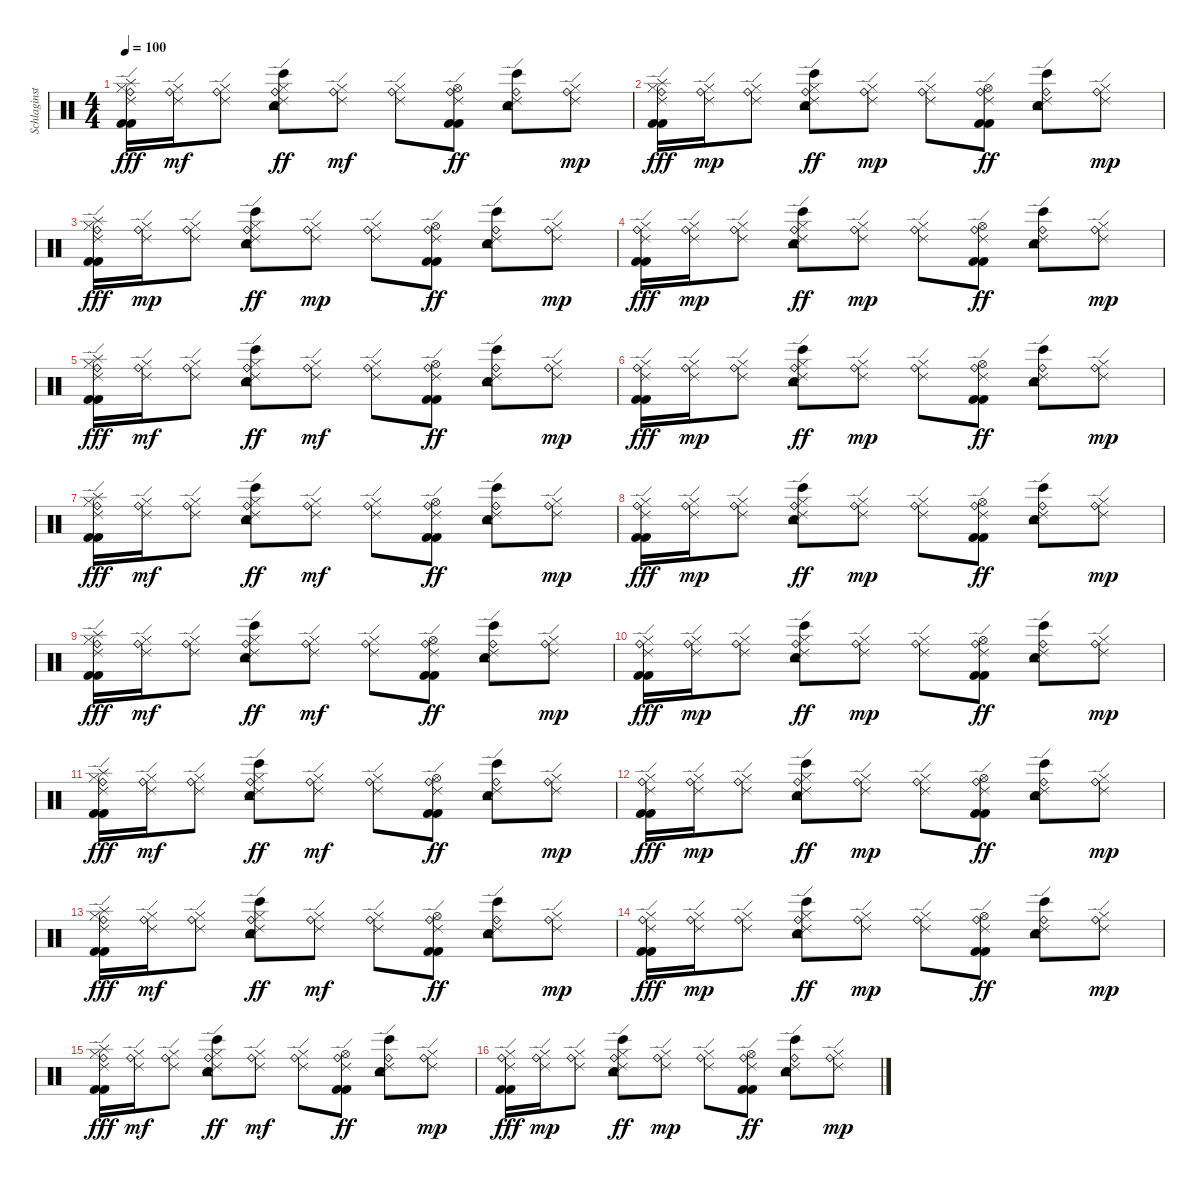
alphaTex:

\track ("Schlaginstrumente - Auswahl" "Schlaginst") {instrument percussion}
\staff {score}
\articulation defaults
\ts (4 4)
\tempo 100
\clef neutral
\ks c
("Splash (hit)" "Ride (bell)" "Ride (edge) 2" "Hi-Hat (closed)" "Kick (hit) 2" "Kick (hit) 2").16{dy fff} ("Ride (bell)" "Ride (edge) 2" "Hi-Hat (closed)").16{dy mf} ("Ride (bell)" "Ride (edge) 2" "Hi-Hat (closed)").8 ("Snare (hit) 2" "Ride (bell)" "Ride (edge) 2" "Hi-Hat (closed)" "Bongo High (hit)" "Tambourine (hit)").8{dy ff} ("Ride (bell)" "Ride (edge) 2" "Hi-Hat (closed)").8{dy mf} ("Ride (bell)" "Ride (edge) 2" "Hi-Hat (closed)").8 ("Ride (bell)" "Ride (edge) 2" "Hi-Hat (open)" "Kick (hit) 2" "Kick (hit) 2").8{dy ff} ("Snare (hit) 2" "Ride (bell)" "Ride (edge) 2" "Bongo High (hit)" "Tambourine (hit)").8 ("Ride (bell)" "Ride (edge) 2" "Hi-Hat (closed)").8{dy mp} |
("Splash (hit)" "Ride (bell)" "Ride (edge) 2" "Hi-Hat (closed)" "Kick (hit) 2" "Kick (hit) 2").16{dy fff} ("Ride (bell)" "Ride (edge) 2" "Hi-Hat (closed)").16{dy mp} ("Ride (bell)" "Ride (edge) 2" "Hi-Hat (closed)").8 ("Snare (hit) 2" "Ride (bell)" "Ride (edge) 2" "Hi-Hat (closed)" "Bongo High (hit)" "Tambourine (hit)").8{dy ff} ("Ride (bell)" "Ride (edge) 2" "Hi-Hat (closed)").8{dy mp} ("Ride (bell)" "Ride (edge) 2" "Hi-Hat (closed)").8 ("Ride (bell)" "Ride (edge) 2" "Hi-Hat (open)" "Kick (hit) 2" "Kick (hit) 2").8{dy ff} ("Snare (hit) 2" "Ride (bell)" "Ride (edge) 2" "Bongo High (hit)" "Tambourine (hit)").8 ("Ride (bell)" "Ride (edge) 2" "Hi-Hat (closed)").8{dy mp} |
("Splash (hit)" "Ride (bell)" "Ride (edge) 2" "Hi-Hat (closed)" "Kick (hit) 2" "Kick (hit) 2").16{dy fff} ("Ride (bell)" "Ride (edge) 2" "Hi-Hat (closed)").16{dy mp} ("Ride (bell)" "Ride (edge) 2" "Hi-Hat (closed)").8 ("Snare (hit) 2" "Ride (bell)" "Ride (edge) 2" "Hi-Hat (closed)" "Bongo High (hit)" "Tambourine (hit)").8{dy ff} ("Ride (bell)" "Ride (edge) 2" "Hi-Hat (closed)").8{dy mp} ("Ride (bell)" "Ride (edge) 2" "Hi-Hat (closed)").8 ("Ride (bell)" "Ride (edge) 2" "Hi-Hat (open)" "Kick (hit) 2" "Kick (hit) 2").8{dy ff} ("Snare (hit) 2" "Ride (bell)" "Ride (edge) 2" "Bongo High (hit)" "Tambourine (hit)").8 ("Ride (bell)" "Ride (edge) 2" "Hi-Hat (closed)").8{dy mp} |
("Ride (bell)" "Ride (edge) 2" "Hi-Hat (closed)" "Kick (hit) 2" "Kick (hit) 2").16{dy fff} ("Ride (bell)" "Ride (edge) 2" "Hi-Hat (closed)").16{dy mp} ("Ride (bell)" "Ride (edge) 2" "Hi-Hat (closed)").8 ("Snare (hit) 2" "Ride (bell)" "Ride (edge) 2" "Hi-Hat (closed)" "Bongo High (hit)" "Tambourine (hit)").8{dy ff} ("Ride (bell)" "Ride (edge) 2" "Hi-Hat (closed)").8{dy mp} ("Ride (bell)" "Ride (edge) 2" "Hi-Hat (closed)").8 ("Ride (bell)" "Ride (edge) 2" "Hi-Hat (open)" "Kick (hit) 2" "Kick (hit) 2").8{dy ff} ("Snare (hit) 2" "Ride (bell)" "Ride (edge) 2" "Bongo High (hit)" "Tambourine (hit)").8 ("Ride (bell)" "Ride (edge) 2" "Hi-Hat (closed)").8{dy mp} |
("Splash (hit)" "Ride (bell)" "Ride (edge) 2" "Hi-Hat (closed)" "Kick (hit) 2" "Kick (hit) 2").16{dy fff volume 12} ("Ride (bell)" "Ride (edge) 2" "Hi-Hat (closed)").16{dy mf} ("Ride (bell)" "Ride (edge) 2" "Hi-Hat (closed)").8 ("Snare (hit) 2" "Ride (bell)" "Ride (edge) 2" "Hi-Hat (closed)" "Bongo High (hit)" "Tambourine (hit)").8{dy ff} ("Ride (bell)" "Ride (edge) 2" "Hi-Hat (closed)").8{dy mf} ("Ride (bell)" "Ride (edge) 2" "Hi-Hat (closed)").8 ("Ride (bell)" "Ride (edge) 2" "Hi-Hat (open)" "Kick (hit) 2" "Kick (hit) 2").8{dy ff} ("Snare (hit) 2" "Ride (bell)" "Ride (edge) 2" "Bongo High (hit)" "Tambourine (hit)").8 ("Ride (bell)" "Ride (edge) 2" "Hi-Hat (closed)").8{dy mp} |
("Ride (bell)" "Ride (edge) 2" "Hi-Hat (closed)" "Kick (hit) 2" "Kick (hit) 2").16{dy fff} ("Ride (bell)" "Ride (edge) 2" "Hi-Hat (closed)").16{dy mp} ("Ride (bell)" "Ride (edge) 2" "Hi-Hat (closed)").8 ("Snare (hit) 2" "Ride (bell)" "Ride (edge) 2" "Hi-Hat (closed)" "Bongo High (hit)" "Tambourine (hit)").8{dy ff} ("Ride (bell)" "Ride (edge) 2" "Hi-Hat (closed)").8{dy mp} ("Ride (bell)" "Ride (edge) 2" "Hi-Hat (closed)").8 ("Ride (bell)" "Ride (edge) 2" "Hi-Hat (open)" "Kick (hit) 2" "Kick (hit) 2").8{dy ff} ("Snare (hit) 2" "Ride (bell)" "Ride (edge) 2" "Bongo High (hit)" "Tambourine (hit)").8 ("Ride (bell)" "Ride (edge) 2" "Hi-Hat (closed)").8{dy mp} |
("Splash (hit)" "Ride (bell)" "Ride (edge) 2" "Hi-Hat (closed)" "Kick (hit) 2" "Kick (hit) 2").16{dy fff} ("Ride (bell)" "Ride (edge) 2" "Hi-Hat (closed)").16{dy mf} ("Ride (bell)" "Ride (edge) 2" "Hi-Hat (closed)").8 ("Snare (hit) 2" "Ride (bell)" "Ride (edge) 2" "Hi-Hat (closed)" "Bongo High (hit)" "Tambourine (hit)").8{dy ff} ("Ride (bell)" "Ride (edge) 2" "Hi-Hat (closed)").8{dy mf} ("Ride (bell)" "Ride (edge) 2" "Hi-Hat (closed)").8 ("Ride (bell)" "Ride (edge) 2" "Hi-Hat (open)" "Kick (hit) 2" "Kick (hit) 2").8{dy ff} ("Snare (hit) 2" "Ride (bell)" "Ride (edge) 2" "Bongo High (hit)" "Tambourine (hit)").8 ("Ride (bell)" "Ride (edge) 2" "Hi-Hat (closed)").8{dy mp} |
("Ride (bell)" "Ride (edge) 2" "Hi-Hat (closed)" "Kick (hit) 2" "Kick (hit) 2").16{dy fff} ("Ride (bell)" "Ride (edge) 2" "Hi-Hat (closed)").16{dy mp} ("Ride (bell)" "Ride (edge) 2" "Hi-Hat (closed)").8 ("Snare (hit) 2" "Ride (bell)" "Ride (edge) 2" "Hi-Hat (closed)" "Bongo High (hit)" "Tambourine (hit)").8{dy ff} ("Ride (bell)" "Ride (edge) 2" "Hi-Hat (closed)").8{dy mp} ("Ride (bell)" "Ride (edge) 2" "Hi-Hat (closed)").8 ("Ride (bell)" "Ride (edge) 2" "Hi-Hat (open)" "Kick (hit) 2" "Kick (hit) 2").8{dy ff} ("Snare (hit) 2" "Ride (bell)" "Ride (edge) 2" "Bongo High (hit)" "Tambourine (hit)").8 ("Ride (bell)" "Ride (edge) 2" "Hi-Hat (closed)").8{dy mp} |
("Splash (hit)" "Ride (bell)" "Ride (edge) 2" "Hi-Hat (closed)" "Kick (hit) 2" "Kick (hit) 2").16{dy fff} ("Ride (bell)" "Ride (edge) 2" "Hi-Hat (closed)").16{dy mf} ("Ride (bell)" "Ride (edge) 2" "Hi-Hat (closed)").8 ("Snare (hit) 2" "Ride (bell)" "Ride (edge) 2" "Hi-Hat (closed)" "Bongo High (hit)" "Tambourine (hit)").8{dy ff} ("Ride (bell)" "Ride (edge) 2" "Hi-Hat (closed)").8{dy mf} ("Ride (bell)" "Ride (edge) 2" "Hi-Hat (closed)").8 ("Ride (bell)" "Ride (edge) 2" "Hi-Hat (open)" "Kick (hit) 2" "Kick (hit) 2").8{dy ff} ("Snare (hit) 2" "Ride (bell)" "Ride (edge) 2" "Bongo High (hit)" "Tambourine (hit)").8 ("Ride (bell)" "Ride (edge) 2" "Hi-Hat (closed)").8{dy mp} |
("Ride (bell)" "Ride (edge) 2" "Hi-Hat (closed)" "Kick (hit) 2" "Kick (hit) 2").16{dy fff} ("Ride (bell)" "Ride (edge) 2" "Hi-Hat (closed)").16{dy mp} ("Ride (bell)" "Ride (edge) 2" "Hi-Hat (closed)").8 ("Snare (hit) 2" "Ride (bell)" "Ride (edge) 2" "Hi-Hat (closed)" "Bongo High (hit)" "Tambourine (hit)").8{dy ff} ("Ride (bell)" "Ride (edge) 2" "Hi-Hat (closed)").8{dy mp} ("Ride (bell)" "Ride (edge) 2" "Hi-Hat (closed)").8 ("Ride (bell)" "Ride (edge) 2" "Hi-Hat (open)" "Kick (hit) 2" "Kick (hit) 2").8{dy ff} ("Snare (hit) 2" "Ride (bell)" "Ride (edge) 2" "Bongo High (hit)" "Tambourine (hit)").8 ("Ride (bell)" "Ride (edge) 2" "Hi-Hat (closed)").8{dy mp} |
("Splash (hit)" "Ride (bell)" "Ride (edge) 2" "Hi-Hat (closed)" "Kick (hit) 2" "Kick (hit) 2").16{dy fff} ("Ride (bell)" "Ride (edge) 2" "Hi-Hat (closed)").16{dy mf} ("Ride (bell)" "Ride (edge) 2" "Hi-Hat (closed)").8 ("Snare (hit) 2" "Ride (bell)" "Ride (edge) 2" "Hi-Hat (closed)" "Bongo High (hit)" "Tambourine (hit)").8{dy ff} ("Ride (bell)" "Ride (edge) 2" "Hi-Hat (closed)").8{dy mf} ("Ride (bell)" "Ride (edge) 2" "Hi-Hat (closed)").8 ("Ride (bell)" "Ride (edge) 2" "Hi-Hat (open)" "Kick (hit) 2" "Kick (hit) 2").8{dy ff} ("Snare (hit) 2" "Ride (bell)" "Ride (edge) 2" "Bongo High (hit)" "Tambourine (hit)").8 ("Ride (bell)" "Ride (edge) 2" "Hi-Hat (closed)").8{dy mp} |
("Ride (bell)" "Ride (edge) 2" "Hi-Hat (closed)" "Kick (hit) 2" "Kick (hit) 2").16{dy fff} ("Ride (bell)" "Ride (edge) 2" "Hi-Hat (closed)").16{dy mp} ("Ride (bell)" "Ride (edge) 2" "Hi-Hat (closed)").8 ("Snare (hit) 2" "Ride (bell)" "Ride (edge) 2" "Hi-Hat (closed)" "Bongo High (hit)" "Tambourine (hit)").8{dy ff} ("Ride (bell)" "Ride (edge) 2" "Hi-Hat (closed)").8{dy mp} ("Ride (bell)" "Ride (edge) 2" "Hi-Hat (closed)").8 ("Ride (bell)" "Ride (edge) 2" "Hi-Hat (open)" "Kick (hit) 2" "Kick (hit) 2").8{dy ff} ("Snare (hit) 2" "Ride (bell)" "Ride (edge) 2" "Bongo High (hit)" "Tambourine (hit)").8 ("Ride (bell)" "Ride (edge) 2" "Hi-Hat (closed)").8{dy mp} |
("Splash (hit)" "Ride (bell)" "Ride (edge) 2" "Hi-Hat (closed)" "Kick (hit) 2" "Kick (hit) 2").16{dy fff} ("Ride (bell)" "Ride (edge) 2" "Hi-Hat (closed)").16{dy mf} ("Ride (bell)" "Ride (edge) 2" "Hi-Hat (closed)").8 ("Snare (hit) 2" "Ride (bell)" "Ride (edge) 2" "Hi-Hat (closed)" "Bongo High (hit)" "Tambourine (hit)").8{dy ff} ("Ride (bell)" "Ride (edge) 2" "Hi-Hat (closed)").8{dy mf} ("Ride (bell)" "Ride (edge) 2" "Hi-Hat (closed)").8 ("Ride (bell)" "Ride (edge) 2" "Hi-Hat (open)" "Kick (hit) 2" "Kick (hit) 2").8{dy ff} ("Snare (hit) 2" "Ride (bell)" "Ride (edge) 2" "Bongo High (hit)" "Tambourine (hit)").8 ("Ride (bell)" "Ride (edge) 2" "Hi-Hat (closed)").8{dy mp} |
("Ride (bell)" "Ride (edge) 2" "Hi-Hat (closed)" "Kick (hit) 2" "Kick (hit) 2").16{dy fff} ("Ride (bell)" "Ride (edge) 2" "Hi-Hat (closed)").16{dy mp} ("Ride (bell)" "Ride (edge) 2" "Hi-Hat (closed)").8 ("Snare (hit) 2" "Ride (bell)" "Ride (edge) 2" "Hi-Hat (closed)" "Bongo High (hit)" "Tambourine (hit)").8{dy ff} ("Ride (bell)" "Ride (edge) 2" "Hi-Hat (closed)").8{dy mp} ("Ride (bell)" "Ride (edge) 2" "Hi-Hat (closed)").8 ("Ride (bell)" "Ride (edge) 2" "Hi-Hat (open)" "Kick (hit) 2" "Kick (hit) 2").8{dy ff} ("Snare (hit) 2" "Ride (bell)" "Ride (edge) 2" "Bongo High (hit)" "Tambourine (hit)").8 ("Ride (bell)" "Ride (edge) 2" "Hi-Hat (closed)").8{dy mp} |
("Splash (hit)" "Ride (bell)" "Ride (edge) 2" "Hi-Hat (closed)" "Kick (hit) 2" "Kick (hit) 2").16{dy fff} ("Ride (bell)" "Ride (edge) 2" "Hi-Hat (closed)").16{dy mf} ("Ride (bell)" "Ride (edge) 2" "Hi-Hat (closed)").8 ("Snare (hit) 2" "Ride (bell)" "Ride (edge) 2" "Hi-Hat (closed)" "Bongo High (hit)" "Tambourine (hit)").8{dy ff} ("Ride (bell)" "Ride (edge) 2" "Hi-Hat (closed)").8{dy mf} ("Ride (bell)" "Ride (edge) 2" "Hi-Hat (closed)").8 ("Ride (bell)" "Ride (edge) 2" "Hi-Hat (open)" "Kick (hit) 2" "Kick (hit) 2").8{dy ff} ("Snare (hit) 2" "Ride (bell)" "Ride (edge) 2" "Bongo High (hit)" "Tambourine (hit)").8 ("Ride (bell)" "Ride (edge) 2" "Hi-Hat (closed)").8{dy mp} |
("Ride (bell)" "Ride (edge) 2" "Hi-Hat (closed)" "Kick (hit) 2" "Kick (hit) 2").16{dy fff} ("Ride (bell)" "Ride (edge) 2" "Hi-Hat (closed)").16{dy mp} ("Ride (bell)" "Ride (edge) 2" "Hi-Hat (closed)").8 ("Snare (hit) 2" "Ride (bell)" "Ride (edge) 2" "Hi-Hat (closed)" "Bongo High (hit)" "Tambourine (hit)").8{dy ff} ("Ride (bell)" "Ride (edge) 2" "Hi-Hat (closed)").8{dy mp} ("Ride (bell)" "Ride (edge) 2" "Hi-Hat (closed)").8 ("Ride (bell)" "Ride (edge) 2" "Hi-Hat (open)" "Kick (hit) 2" "Kick (hit) 2").8{dy ff} ("Snare (hit) 2" "Ride (bell)" "Ride (edge) 2" "Bongo High (hit)" "Tambourine (hit)").8 ("Ride (bell)" "Ride (edge) 2" "Hi-Hat (closed)").8{dy mp}
